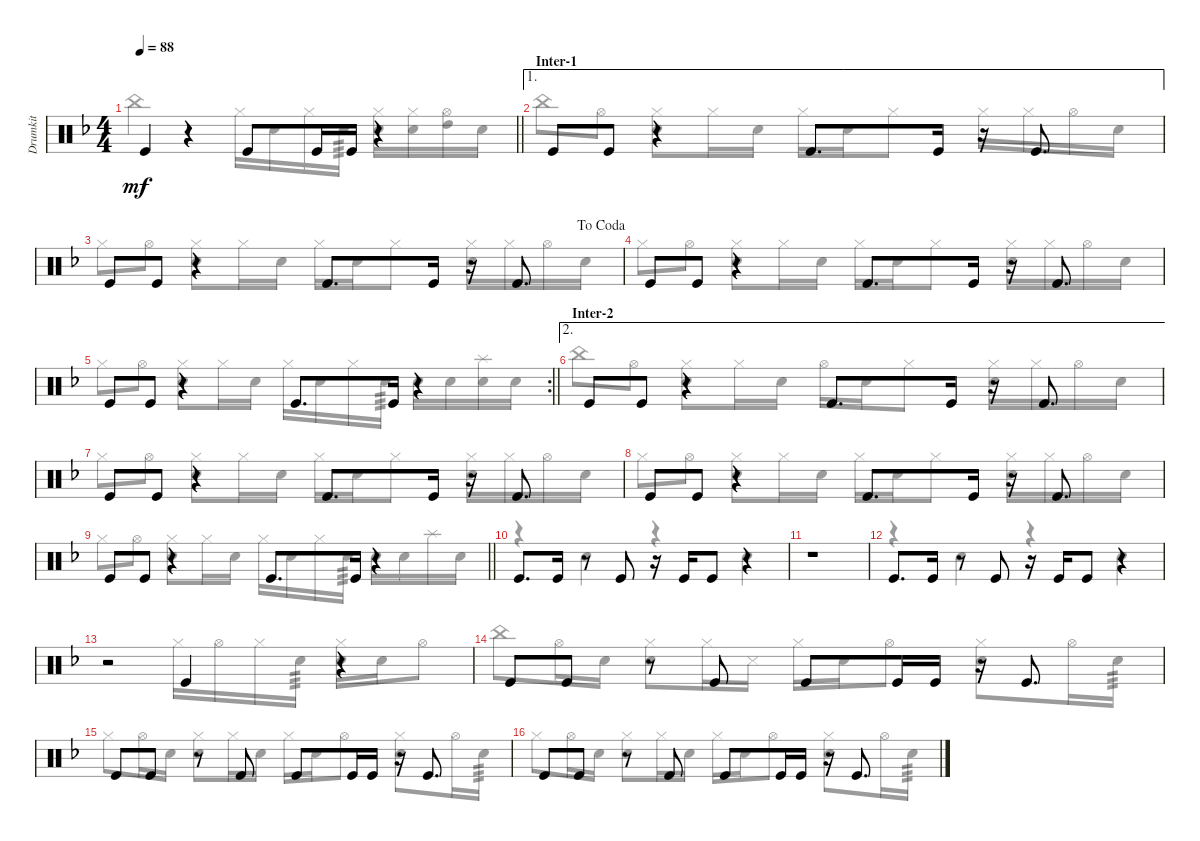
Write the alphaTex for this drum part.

\track ("Drumkit" "Drumkit") {instrument percussion}
\staff {score}
\articulation defaults
\voice
\ts (4 4)
\tempo 88
\clef neutral
\barLineRight lightlight
\ks dminor "Kick (hit)".4{dy mf}
r.4 "Kick (hit)".8 "Kick (hit)".16 "Kick (hit)".16 r.4 |
\ae 1
\section ("" "Inter-1")
"Kick (hit)".8 "Kick (hit)".8 r.4 "Kick (hit)".8{d} "Kick (hit)".16 r.16 "Kick (hit)".8{d} |
\jump dacoda "Kick (hit)".8 "Kick (hit)".8
r.4 "Kick (hit)".8{d} "Kick (hit)".16 r.16 "Kick (hit)".8{d} |
"Kick (hit)".8 "Kick (hit)".8 r.4 "Kick (hit)".8{d} "Kick (hit)".16 r.16 "Kick (hit)".8{d} |
\rc 2
\barLineRight lightlight "Kick (hit)".8 "Kick (hit)".8
r.4 "Kick (hit)".8{d} "Kick (hit)".16 r.4 |
\ae 2
\section ("" "Inter-2")
"Kick (hit)".8 "Kick (hit)".8 r.4 "Kick (hit)".8{d} "Kick (hit)".16 r.16 "Kick (hit)".8{d} |
"Kick (hit)".8 "Kick (hit)".8 r.4 "Kick (hit)".8{d} "Kick (hit)".16 r.16 "Kick (hit)".8{d} |
"Kick (hit)".8 "Kick (hit)".8 r.4 "Kick (hit)".8{d} "Kick (hit)".16 r.16 "Kick (hit)".8{d} |
\barLineRight lightlight "Kick (hit)".8 "Kick (hit)".8
r.4 "Kick (hit)".8{d} "Kick (hit)".16 r.4 |
"Kick (hit)".8{d} "Kick (hit)".16 r.8 "Kick (hit)".8 r.16 "Kick (hit)".16 "Kick (hit)".8 r.4 |
r.1 |
"Kick (hit)".8{d} "Kick (hit)".16 r.8 "Kick (hit)".8 r.16 "Kick (hit)".16 "Kick (hit)".8 r.4 |
r.2 "Kick (hit)".4 r.4 |
"Kick (hit)".8 "Kick (hit)".8 r.8 "Kick (hit)".8 "Kick (hit)".8 "Kick (hit)".16 "Kick (hit)".16 r.16 "Kick (hit)".8{d} |
"Kick (hit)".8 "Kick (hit)".8 r.8 "Kick (hit)".8 "Kick (hit)".8 "Kick (hit)".16 "Kick (hit)".16 r.16 "Kick (hit)".8{d} |
"Kick (hit)".8 "Kick (hit)".8 r.8 "Kick (hit)".8 "Kick (hit)".8 "Kick (hit)".16 "Kick (hit)".16 r.16 "Kick (hit)".8{d}
\voice
\clef neutral
\ottava regular
\simile none
\barLineRight lightlight
\ks dminor "China (hit)".2{dy mf} "Hi-Hat (closed)".16 "Snare (hit) 2".16 "Hi-Hat (closed)".16 "Snare (hit) 2".16{tp 3}
("Snare (hit) 2" "Hi-Hat (closed)").16 ("Snare (hit) 2" "Hi-Hat (closed)").16 ("High Tom (hit)" "Hi-Hat (open)").16 "Snare (hit) 2".16 |
"China (hit)".8 "Hi-Hat (open)".8 ("Hi-Hat (closed)" "Snare (hit) 2").8 "Hi-Hat (closed)".16 "Snare (hit) 2".16 "Hi-Hat (closed)".16 "Snare (hit) 2".16 "Hi-Hat (closed)".8 "Hi-Hat (closed)".16 "Hi-Hat (closed)".16 "Hi-Hat (open)".16 "Snare (hit) 2".16 |
"Hi-Hat (closed)".8 "Hi-Hat (open)".8 ("Hi-Hat (closed)" "Snare (hit) 2").8 "Hi-Hat (closed)".16 "Snare (hit) 2".16 "Hi-Hat (closed)".16 "Snare (hit) 2".16 "Hi-Hat (closed)".8 ("Hi-Hat (closed)" "Snare (hit) 2").16 "Hi-Hat (closed)".16 "Hi-Hat (open)".16 "Snare (hit) 2".16 |
"Hi-Hat (closed)".8 "Hi-Hat (open)".8 ("Hi-Hat (closed)" "Snare (hit) 2").8 "Hi-Hat (closed)".16 "Snare (hit) 2".16 "Hi-Hat (closed)".16 "Snare (hit) 2".16 "Hi-Hat (closed)".8 ("Hi-Hat (closed)" "Snare (hit) 2").16 "Hi-Hat (closed)".16 "Hi-Hat (open)".16 "Snare (hit) 2".16 |
\barLineRight lightlight "Hi-Hat (closed)".8 "Hi-Hat (open)".8
("Hi-Hat (closed)" "Snare (hit) 2").8 "Hi-Hat (closed)".16 "Snare (hit) 2".16 "Hi-Hat (closed)".16 "Snare (hit) 2".16 "Hi-Hat (closed)".16 "Snare (hit) 2".16{tp 3} "Snare (hit) 2".16 "Snare (hit) 2".16 ("Snare (hit) 2" "Splash (hit)").16 "Snare (hit) 2".16 |
"China (hit)".8 "Hi-Hat (open)".8 ("Hi-Hat (closed)" "Snare (hit) 2").8 "Hi-Hat (closed)".16 "Snare (hit) 2".16 "Hi-Hat (open)".16 "Snare (hit) 2".16 "Hi-Hat (closed)".8 ("Hi-Hat (closed)" "Snare (hit) 2").16 "Hi-Hat (closed)".16 "Hi-Hat (open)".16 "Snare (hit) 2".16 |
"Hi-Hat (closed)".8 "Hi-Hat (open)".8 ("Hi-Hat (closed)" "Snare (hit) 2").8 "Hi-Hat (closed)".16 "Snare (hit) 2".16 "Hi-Hat (closed)".16 "Snare (hit) 2".16 "Hi-Hat (closed)".8 ("Hi-Hat (closed)" "Snare (hit) 2").16 "Hi-Hat (closed)".16 "Hi-Hat (open)".16 "Snare (hit) 2".16 |
"Hi-Hat (closed)".8 "Hi-Hat (open)".8 ("Hi-Hat (closed)" "Snare (hit) 2").8 "Hi-Hat (closed)".16 "Snare (hit) 2".16 "Hi-Hat (closed)".16 "Snare (hit) 2".16 "Hi-Hat (closed)".8 ("Hi-Hat (closed)" "Snare (hit) 2").16 "Hi-Hat (closed)".16 "Hi-Hat (open)".16 "Snare (hit) 2".16 |
\barLineRight lightlight "Hi-Hat (closed)".8 "Hi-Hat (open)".8
("Hi-Hat (closed)" "Snare (hit) 2").8 "Hi-Hat (closed)".16 "Snare (hit) 2".16 "Hi-Hat (closed)".16 "Snare (hit) 2".16 "Hi-Hat (closed)".16 "Snare (hit) 2".16{tp 3} "Snare (hit) 2".16 "Snare (hit) 2".16 "Splash (hit)".16 "Snare (hit) 2".16 |
r.4 "Snare (hit) 2".4 r.4 "Snare (hit) 2".4 |
|
r.4 "Snare (hit) 2".4 r.4 "Snare (hit) 2".4 |
r.2 "Hi-Hat (closed)".16 "Hi-Hat (open)".16 "Hi-Hat (closed)".16 "Snare (hit) 2".16{tp 3} ("Snare (hit) 2" "Hi-Hat (closed)").16 "Snare (hit) 2".16 "Hi-Hat (open)".8 |
"China (hit)".8 "Hi-Hat (open)".16 "Snare (hit) 2".16 ("Snare (hit) 2" "Hi-Hat (closed)").8 "Hi-Hat (closed)".16 "Snare (side stick) 3".16 "Hi-Hat (closed)".16 "Snare (hit) 2".16 "Hi-Hat (open)".8 ("Hi-Hat (closed)" "Snare (hit) 2").8 "Hi-Hat (open)".16 "Snare (hit) 2".16{tp 3} |
"Hi-Hat (closed)".8 "Hi-Hat (open)".16 "Snare (hit) 2".16 ("Snare (hit) 2" "Hi-Hat (closed)").8 "Hi-Hat (closed)".16 "Snare (hit) 2".16 "Hi-Hat (closed)".16 "Snare (hit) 2".16 "Hi-Hat (open)".8 ("Hi-Hat (closed)" "Snare (hit) 2").8 "Hi-Hat (open)".16 "Snare (hit) 2".16{tp 3} |
"Hi-Hat (closed)".8 "Hi-Hat (open)".16 "Snare (hit) 2".16 ("Snare (hit) 2" "Hi-Hat (closed)").8 "Hi-Hat (closed)".16 "Snare (hit) 2".16 "Hi-Hat (closed)".16 "Snare (hit) 2".16 "Hi-Hat (open)".8 ("Hi-Hat (closed)" "Snare (hit) 2").8 "Hi-Hat (open)".16 "Snare (hit) 2".16{tp 3}
